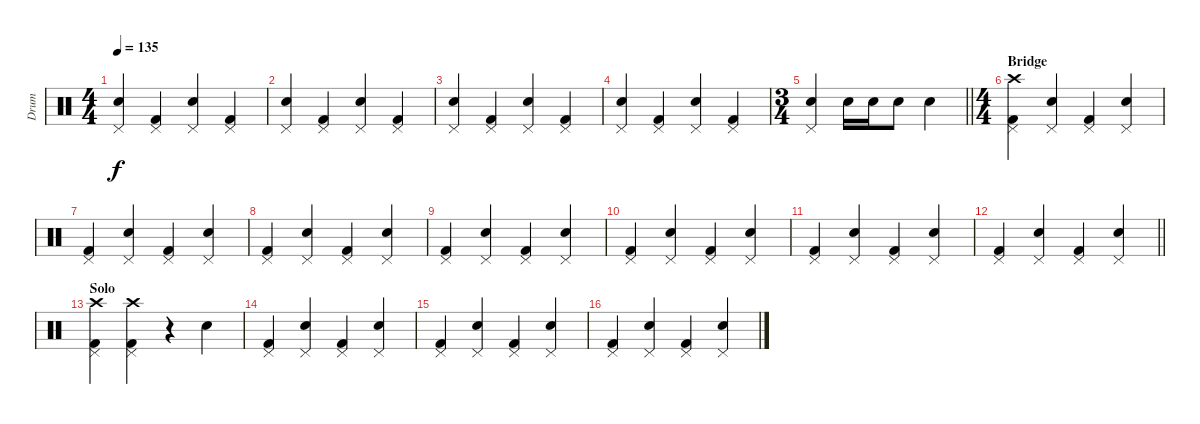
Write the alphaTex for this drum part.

\track ("Drum" "Drum") {instrument percussion}
\staff {score}
\articulation defaults
\ts (4 4)
\tempo 135
\clef neutral
\ks c
("Electric Snare (hit)" "Pedal Hi-Hat (hit)").4{dy f} ("Kick (hit) 2" "Pedal Hi-Hat (hit)").4 ("Electric Snare (hit)" "Pedal Hi-Hat (hit)").4 ("Kick (hit) 2" "Pedal Hi-Hat (hit)").4 |
("Electric Snare (hit)" "Pedal Hi-Hat (hit)").4 ("Kick (hit) 2" "Pedal Hi-Hat (hit)").4 ("Electric Snare (hit)" "Pedal Hi-Hat (hit)").4 ("Kick (hit) 2" "Pedal Hi-Hat (hit)").4 |
("Electric Snare (hit)" "Pedal Hi-Hat (hit)").4 ("Kick (hit) 2" "Pedal Hi-Hat (hit)").4 ("Electric Snare (hit)" "Pedal Hi-Hat (hit)").4 ("Kick (hit) 2" "Pedal Hi-Hat (hit)").4 |
("Electric Snare (hit)" "Pedal Hi-Hat (hit)").4 ("Kick (hit) 2" "Pedal Hi-Hat (hit)").4 ("Electric Snare (hit)" "Pedal Hi-Hat (hit)").4 ("Kick (hit) 2" "Pedal Hi-Hat (hit)").4 |
\ts (3 4)
\barLineRight lightlight
("Electric Snare (hit)" "Pedal Hi-Hat (hit)").4 "Electric Snare (hit)".16 "Electric Snare (hit)".16 "Electric Snare (hit)".8 "Electric Snare (hit)".4 |
\ts (4 4)
\section ("" "Bridge")
("Crash high (hit)" "Kick (hit) 2" "Pedal Hi-Hat (hit)").4 ("Electric Snare (hit)" "Pedal Hi-Hat (hit)").4 ("Kick (hit) 2" "Pedal Hi-Hat (hit)").4 ("Electric Snare (hit)" "Pedal Hi-Hat (hit)").4 |
("Kick (hit) 2" "Pedal Hi-Hat (hit)").4 ("Electric Snare (hit)" "Pedal Hi-Hat (hit)").4 ("Kick (hit) 2" "Pedal Hi-Hat (hit)").4 ("Electric Snare (hit)" "Pedal Hi-Hat (hit)").4 |
("Kick (hit) 2" "Pedal Hi-Hat (hit)").4 ("Electric Snare (hit)" "Pedal Hi-Hat (hit)").4 ("Kick (hit) 2" "Pedal Hi-Hat (hit)").4 ("Electric Snare (hit)" "Pedal Hi-Hat (hit)").4 |
("Kick (hit) 2" "Pedal Hi-Hat (hit)").4 ("Electric Snare (hit)" "Pedal Hi-Hat (hit)").4 ("Kick (hit) 2" "Pedal Hi-Hat (hit)").4 ("Electric Snare (hit)" "Pedal Hi-Hat (hit)").4 |
("Kick (hit) 2" "Pedal Hi-Hat (hit)").4 ("Electric Snare (hit)" "Pedal Hi-Hat (hit)").4 ("Kick (hit) 2" "Pedal Hi-Hat (hit)").4 ("Electric Snare (hit)" "Pedal Hi-Hat (hit)").4 |
("Kick (hit) 2" "Pedal Hi-Hat (hit)").4 ("Electric Snare (hit)" "Pedal Hi-Hat (hit)").4 ("Kick (hit) 2" "Pedal Hi-Hat (hit)").4 ("Electric Snare (hit)" "Pedal Hi-Hat (hit)").4 |
\barLineRight lightlight
("Kick (hit) 2" "Pedal Hi-Hat (hit)").4 ("Electric Snare (hit)" "Pedal Hi-Hat (hit)").4 ("Kick (hit) 2" "Pedal Hi-Hat (hit)").4 ("Electric Snare (hit)" "Pedal Hi-Hat (hit)").4 |
\section ("" "Solo")
("Crash high (hit)" "Kick (hit) 2" "Pedal Hi-Hat (hit)").4 ("Crash high (hit)" "Kick (hit) 2" "Pedal Hi-Hat (hit)").4 r.4 "Electric Snare (hit)".4 |
("Kick (hit) 2" "Pedal Hi-Hat (hit)").4 ("Electric Snare (hit)" "Pedal Hi-Hat (hit)").4 ("Kick (hit) 2" "Pedal Hi-Hat (hit)").4 ("Electric Snare (hit)" "Pedal Hi-Hat (hit)").4 |
("Kick (hit) 2" "Pedal Hi-Hat (hit)").4 ("Electric Snare (hit)" "Pedal Hi-Hat (hit)").4 ("Kick (hit) 2" "Pedal Hi-Hat (hit)").4 ("Electric Snare (hit)" "Pedal Hi-Hat (hit)").4 |
("Kick (hit) 2" "Pedal Hi-Hat (hit)").4 ("Electric Snare (hit)" "Pedal Hi-Hat (hit)").4 ("Kick (hit) 2" "Pedal Hi-Hat (hit)").4 ("Electric Snare (hit)" "Pedal Hi-Hat (hit)").4
